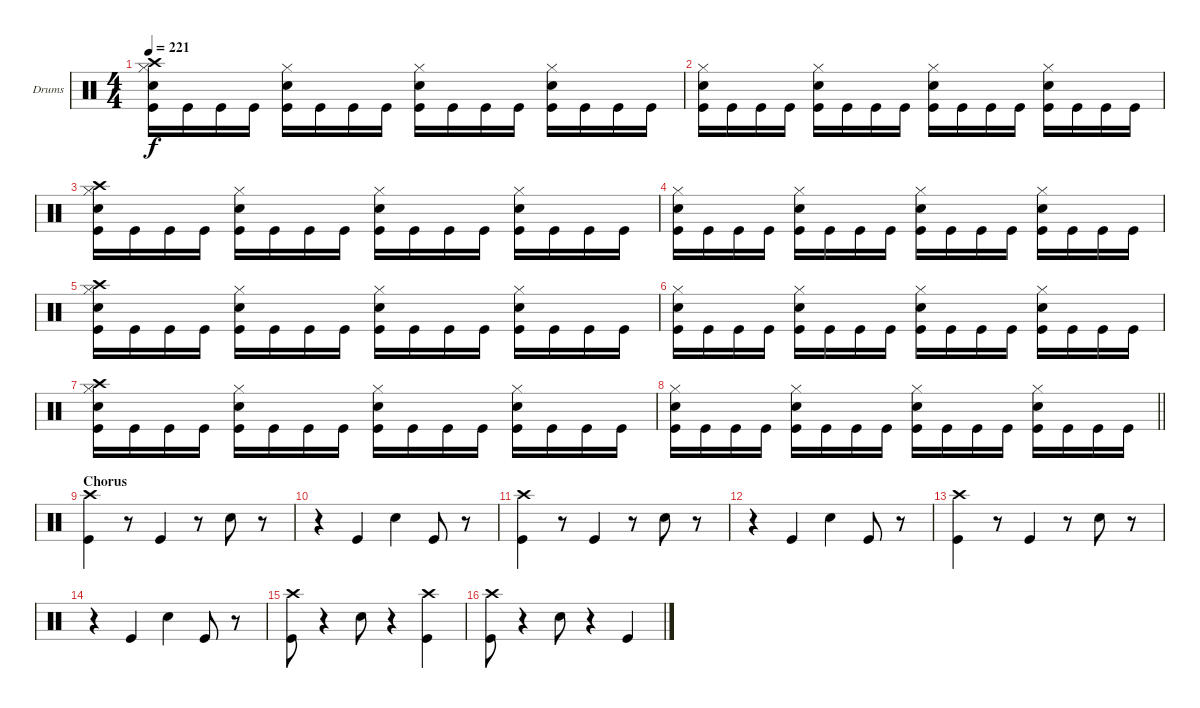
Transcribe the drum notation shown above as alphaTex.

\bracketExtendMode groupsimilarinstruments
\firstSystemTrackNameOrientation horizontal
\otherSystemsTrackNameOrientation horizontal
\track ("Drumkit" "Drums") {instrument percussion}
\staff {score}
\articulation defaults
\ts (4 4)
\tempo 221
\clef neutral
\ks c
("Crash high (hit)" "Hi-Hat (closed)" "Snare (hit) 2" "Kick (hit)").16{dy f} "Kick (hit)".16 "Kick (hit)".16 "Kick (hit)".16 ("Hi-Hat (closed)" "Snare (hit) 2" "Kick (hit)").16 "Kick (hit)".16 "Kick (hit)".16 "Kick (hit)".16 ("Hi-Hat (closed)" "Snare (hit) 2" "Kick (hit)").16 "Kick (hit)".16 "Kick (hit)".16 "Kick (hit)".16 ("Hi-Hat (closed)" "Snare (hit) 2" "Kick (hit)").16 "Kick (hit)".16 "Kick (hit)".16 "Kick (hit)".16 |
("Hi-Hat (closed)" "Snare (hit) 2" "Kick (hit)").16 "Kick (hit)".16 "Kick (hit)".16 "Kick (hit)".16 ("Hi-Hat (closed)" "Snare (hit) 2" "Kick (hit)").16 "Kick (hit)".16 "Kick (hit)".16 "Kick (hit)".16 ("Hi-Hat (closed)" "Snare (hit) 2" "Kick (hit)").16 "Kick (hit)".16 "Kick (hit)".16 "Kick (hit)".16 ("Hi-Hat (closed)" "Snare (hit) 2" "Kick (hit)").16 "Kick (hit)".16 "Kick (hit)".16 "Kick (hit)".16 |
("Crash high (hit)" "Hi-Hat (closed)" "Snare (hit) 2" "Kick (hit)").16 "Kick (hit)".16 "Kick (hit)".16 "Kick (hit)".16 ("Hi-Hat (closed)" "Snare (hit) 2" "Kick (hit)").16 "Kick (hit)".16 "Kick (hit)".16 "Kick (hit)".16 ("Hi-Hat (closed)" "Snare (hit) 2" "Kick (hit)").16 "Kick (hit)".16 "Kick (hit)".16 "Kick (hit)".16 ("Hi-Hat (closed)" "Snare (hit) 2" "Kick (hit)").16 "Kick (hit)".16 "Kick (hit)".16 "Kick (hit)".16 |
("Hi-Hat (closed)" "Snare (hit) 2" "Kick (hit)").16 "Kick (hit)".16 "Kick (hit)".16 "Kick (hit)".16 ("Hi-Hat (closed)" "Snare (hit) 2" "Kick (hit)").16 "Kick (hit)".16 "Kick (hit)".16 "Kick (hit)".16 ("Hi-Hat (closed)" "Snare (hit) 2" "Kick (hit)").16 "Kick (hit)".16 "Kick (hit)".16 "Kick (hit)".16 ("Hi-Hat (closed)" "Snare (hit) 2" "Kick (hit)").16 "Kick (hit)".16 "Kick (hit)".16 "Kick (hit)".16 |
("Crash high (hit)" "Hi-Hat (closed)" "Snare (hit) 2" "Kick (hit)").16 "Kick (hit)".16 "Kick (hit)".16 "Kick (hit)".16 ("Hi-Hat (closed)" "Snare (hit) 2" "Kick (hit)").16 "Kick (hit)".16 "Kick (hit)".16 "Kick (hit)".16 ("Hi-Hat (closed)" "Snare (hit) 2" "Kick (hit)").16 "Kick (hit)".16 "Kick (hit)".16 "Kick (hit)".16 ("Hi-Hat (closed)" "Snare (hit) 2" "Kick (hit)").16 "Kick (hit)".16 "Kick (hit)".16 "Kick (hit)".16 |
("Hi-Hat (closed)" "Snare (hit) 2" "Kick (hit)").16 "Kick (hit)".16 "Kick (hit)".16 "Kick (hit)".16 ("Hi-Hat (closed)" "Snare (hit) 2" "Kick (hit)").16 "Kick (hit)".16 "Kick (hit)".16 "Kick (hit)".16 ("Hi-Hat (closed)" "Snare (hit) 2" "Kick (hit)").16 "Kick (hit)".16 "Kick (hit)".16 "Kick (hit)".16 ("Hi-Hat (closed)" "Snare (hit) 2" "Kick (hit)").16 "Kick (hit)".16 "Kick (hit)".16 "Kick (hit)".16 |
("Crash high (hit)" "Hi-Hat (closed)" "Snare (hit) 2" "Kick (hit)").16 "Kick (hit)".16 "Kick (hit)".16 "Kick (hit)".16 ("Hi-Hat (closed)" "Snare (hit) 2" "Kick (hit)").16 "Kick (hit)".16 "Kick (hit)".16 "Kick (hit)".16 ("Hi-Hat (closed)" "Snare (hit) 2" "Kick (hit)").16 "Kick (hit)".16 "Kick (hit)".16 "Kick (hit)".16 ("Hi-Hat (closed)" "Snare (hit) 2" "Kick (hit)").16 "Kick (hit)".16 "Kick (hit)".16 "Kick (hit)".16 |
\barLineRight lightlight
("Hi-Hat (closed)" "Snare (hit) 2" "Kick (hit)").16 "Kick (hit)".16 "Kick (hit)".16 "Kick (hit)".16 ("Hi-Hat (closed)" "Snare (hit) 2" "Kick (hit)").16 "Kick (hit)".16 "Kick (hit)".16 "Kick (hit)".16 ("Hi-Hat (closed)" "Snare (hit) 2" "Kick (hit)").16 "Kick (hit)".16 "Kick (hit)".16 "Kick (hit)".16 ("Hi-Hat (closed)" "Snare (hit) 2" "Kick (hit)").16 "Kick (hit)".16 "Kick (hit)".16 "Kick (hit)".16 |
\section ("" "Chorus")
("Crash high (hit)" "Kick (hit)").4 r.8 "Kick (hit)".4 r.8 "Snare (hit) 2".8 r.8 |
r.4 "Kick (hit)".4 "Snare (hit) 2".4 "Kick (hit)".8 r.8 |
("Crash high (hit)" "Kick (hit)").4 r.8 "Kick (hit)".4 r.8 "Snare (hit) 2".8 r.8 |
r.4 "Kick (hit)".4 "Snare (hit) 2".4 "Kick (hit)".8 r.8 |
("Crash high (hit)" "Kick (hit)").4 r.8 "Kick (hit)".4 r.8 "Snare (hit) 2".8 r.8 |
r.4 "Kick (hit)".4 "Snare (hit) 2".4 "Kick (hit)".8 r.8 |
("Crash high (hit)" "Kick (hit)").8 r.4 "Snare (hit) 2".8 r.4 ("Crash high (hit)" "Kick (hit)").4 |
("Crash high (hit)" "Kick (hit)").8 r.4 "Snare (hit) 2".8 r.4 "Kick (hit)".4
